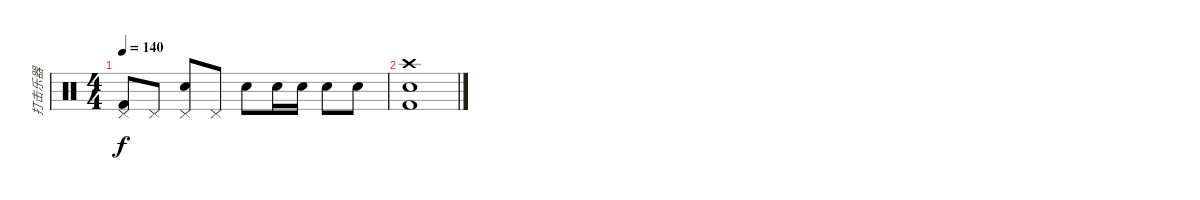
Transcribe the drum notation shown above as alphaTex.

\track ("打击乐器" "打击乐器") {instrument percussion}
\staff {score}
\articulation defaults
\ts (4 4)
\tempo 140
\clef neutral
\ks c
("Pedal Hi-Hat (hit)" "Kick (hit) 2").8{dy f} "Pedal Hi-Hat (hit)".8 ("Pedal Hi-Hat (hit)" "Snare (hit) 2").8 "Pedal Hi-Hat (hit)".8 "Snare (hit) 2".8 "Snare (hit) 2".16 "Snare (hit) 2".16 "Snare (hit) 2".8 "Snare (hit) 2".8 |
("Crash high (hit)" "Snare (hit) 2" "Kick (hit) 2").1
